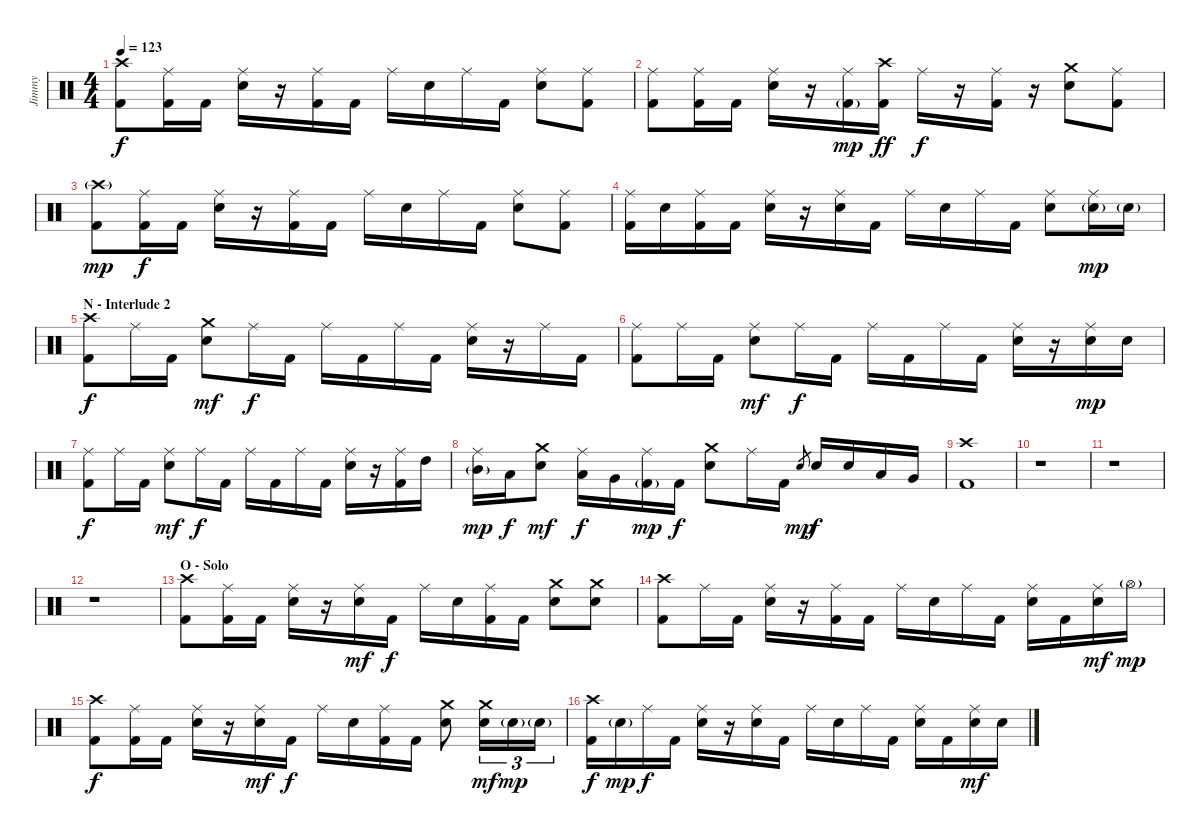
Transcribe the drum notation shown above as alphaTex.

\track ("Jimmy" "Jimmy") {instrument percussion}
\staff {score}
\articulation defaults
\ts (4 4)
\tempo 123
\clef neutral
\ks c
("Crash high (hit)" "Kick (hit) 2").8{dy f} ("Ride (middle)" "Kick (hit) 2").16 "Kick (hit) 2".16 ("Ride (middle)" "Electric Snare (hit)").16 r.16 ("Ride (middle)" "Kick (hit) 2").16 "Kick (hit) 2".16 "Ride (middle)".16 "Electric Snare (hit)".16 "Ride (middle)".16 "Kick (hit) 2".16 ("Ride (middle)" "Electric Snare (hit)").8 ("Ride (middle)" "Kick (hit) 2").8 |
("Ride (middle)" "Kick (hit) 2").8 ("Ride (middle)" "Kick (hit) 2").16 "Kick (hit) 2".16 ("Ride (middle)" "Electric Snare (hit)").16 r.16 ("Ride (middle)" "Kick (hit) 2"{g}).16{dy mp} ("Crash high (hit)" "Kick (hit) 2").16{dy ff} "Ride (middle)".16{dy f} r.16 ("Ride (middle)" "Kick (hit) 2").16 r.16 ("Crash medium (hit)" "Electric Snare (hit)").8 ("Ride (middle)" "Kick (hit) 2").8 |
("Crash high (hit)"{g} "Kick (hit) 2").8{dy mp} ("Ride (middle)" "Kick (hit) 2").16{dy f} "Kick (hit) 2".16 ("Ride (middle)" "Electric Snare (hit)").16 r.16 ("Ride (middle)" "Kick (hit) 2").16 "Kick (hit) 2".16 "Ride (middle)".16 "Electric Snare (hit)".16 "Ride (middle)".16 "Kick (hit) 2".16 ("Ride (middle)" "Electric Snare (hit)").8 ("Ride (middle)" "Kick (hit) 2").8 |
("Ride (middle)" "Kick (hit) 2").16 "Electric Snare (hit)".16 ("Ride (middle)" "Kick (hit) 2").16 "Kick (hit) 2".16 ("Ride (middle)" "Electric Snare (hit)").16 r.16 ("Ride (middle)" "Electric Snare (hit)").16 "Kick (hit) 2".16 "Ride (middle)".16 "Electric Snare (hit)".16 "Ride (middle)".16 "Kick (hit) 2".16 ("Ride (middle)" "Electric Snare (hit)").8 ("Ride (middle)" "Electric Snare (hit)"{g}).16{dy mp} "Electric Snare (hit)"{g}.16 |
\section ("" "N - Interlude 2")
("Crash high (hit)" "Kick (hit) 2").8{dy f} "Ride (middle)".16 "Kick (hit) 2".16 ("Crash medium (hit)" "Electric Snare (hit)").8{dy mf} "Ride (middle)".16{dy f} "Kick (hit) 2".16 "Ride (middle)".16 "Kick (hit) 2".16 "Ride (middle)".16 "Kick (hit) 2".16 ("Ride (middle)" "Electric Snare (hit)").16 r.16 "Ride (middle)".16 "Kick (hit) 2".16 |
("Ride (middle)" "Kick (hit) 2").8 "Ride (middle)".16 "Kick (hit) 2".16 ("Ride (middle)" "Electric Snare (hit)").8{dy mf} "Ride (middle)".16{dy f} "Kick (hit) 2".16 "Ride (middle)".16 "Kick (hit) 2".16 "Ride (middle)".16 "Kick (hit) 2".16 ("Ride (middle)" "Electric Snare (hit)").16 r.16 ("Ride (middle)" "Electric Snare (hit)").16{dy mp} "Electric Snare (hit)".16 |
("Ride (middle)" "Kick (hit) 2").8{dy f} "Ride (middle)".16 "Kick (hit) 2".16 ("Ride (middle)" "Electric Snare (hit)").8{dy mf} "Ride (middle)".16{dy f} "Kick (hit) 2".16 "Ride (middle)".16 "Kick (hit) 2".16 "Ride (middle)".16 "Kick (hit) 2".16 ("Ride (middle)" "Electric Snare (hit)").16 r.16 ("Ride (middle)" "Kick (hit) 2").16 "High Tom (hit)".16 |
("Ride (middle)" "Mid Tom (hit)"{g}).16{dy mp} "Low Tom (hit)".16{dy f} ("Crash medium (hit)" "Electric Snare (hit)").8{dy mf} ("Ride (middle)" "Low Tom (hit)").16{dy f} "Very Low Tom (hit)".16 ("Ride (middle)" "Kick (hit) 2"{g}).16{dy mp} "Kick (hit) 2".16{dy f} ("Crash medium (hit)" "Electric Snare (hit)").8 "Ride (middle)".16 "Kick (hit) 2".16 "Electric Snare (hit)".8{gr dy mp} "Electric Snare (hit)".16{dy f} "Electric Snare (hit)".16 "Low Tom (hit)".16 "Very Low Tom (hit)".16 |
("Crash high (hit)" "Kick (hit) 2").1 |
r.1 |
r.1 |
r.1 |
\section ("" "O - Solo")
("Crash high (hit)" "Kick (hit) 2").8 ("Ride (middle)" "Kick (hit) 2").16 "Kick (hit) 2".16 ("Ride (middle)" "Electric Snare (hit)").16 r.16 ("Ride (middle)" "Electric Snare (hit)").16{dy mf} "Kick (hit) 2".16{dy f} "Ride (middle)".16 "Electric Snare (hit)".16 ("Ride (middle)" "Kick (hit) 2").16 "Kick (hit) 2".16 ("Crash medium (hit)" "Electric Snare (hit)").8 ("Crash medium (hit)" "Electric Snare (hit)").8 |
("Crash high (hit)" "Kick (hit) 2").8 "Ride (middle)".16 "Kick (hit) 2".16 ("Ride (middle)" "Electric Snare (hit)").16 r.16 ("Ride (middle)" "Kick (hit) 2").16 "Kick (hit) 2".16 "Ride (middle)".16 "Electric Snare (hit)".16 "Ride (middle)".16 "Kick (hit) 2".16 ("Ride (middle)" "Electric Snare (hit)").16 "Kick (hit) 2".16 ("Ride (middle)" "Electric Snare (hit)").16{dy mf} "Hi-Hat (open)"{g}.16{dy mp} |
("Crash high (hit)" "Kick (hit) 2").8{dy f} ("Ride (middle)" "Kick (hit) 2").16 "Kick (hit) 2".16 ("Ride (middle)" "Electric Snare (hit)").16 r.16 ("Ride (middle)" "Electric Snare (hit)").16{dy mf} "Kick (hit) 2".16{dy f} "Ride (middle)".16 "Electric Snare (hit)".16 ("Ride (middle)" "Kick (hit) 2").16 "Kick (hit) 2".16 ("Crash medium (hit)" "Electric Snare (hit)").8 ("Crash medium (hit)" "Electric Snare (hit)").16{tu (3 2) dy mf} "Electric Snare (hit)"{g}.16{tu (3 2) dy mp} "Electric Snare (hit)"{g}.16{tu (3 2)} |
("Crash high (hit)" "Kick (hit) 2").16{dy f} "Electric Snare (hit)"{g}.16{dy mp} "Ride (middle)".16{dy f} "Kick (hit) 2".16 ("Ride (middle)" "Electric Snare (hit)").16 r.16 ("Ride (middle)" "Electric Snare (hit)").16 "Kick (hit) 2".16 "Ride (middle)".16 "Electric Snare (hit)".16 "Ride (middle)".16 "Kick (hit) 2".16 ("Ride (middle)" "Electric Snare (hit)").16 "Kick (hit) 2".16 ("Ride (middle)" "Electric Snare (hit)").16{dy mf} "Electric Snare (hit)".16
